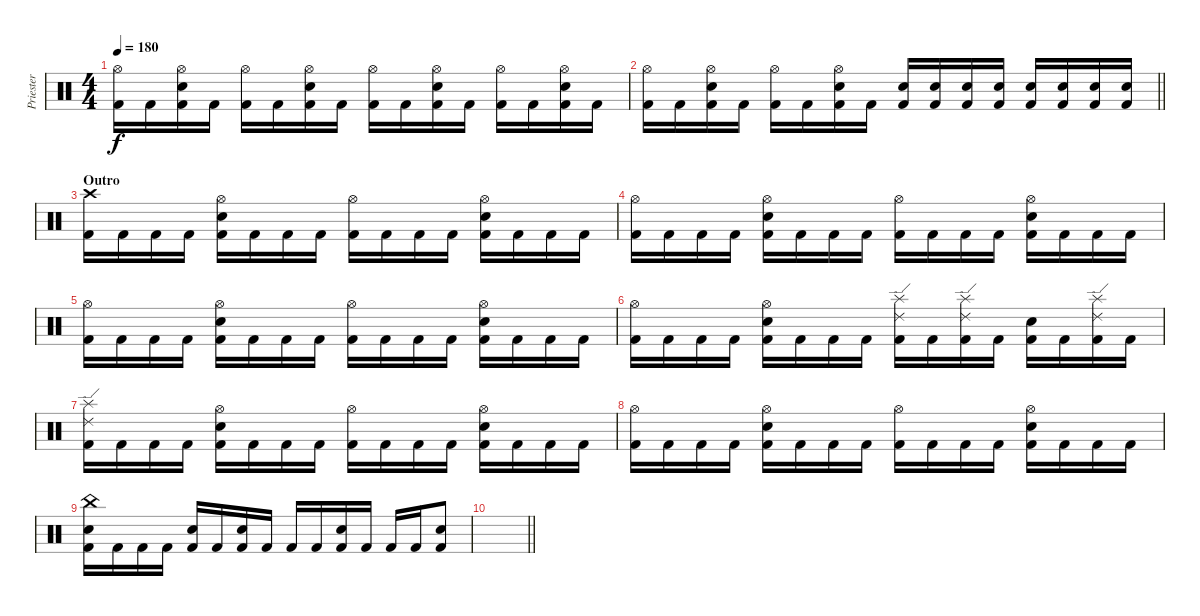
\track ("Priester" "Priester") {instrument percussion}
\staff {score}
\articulation defaults
\ts (4 4)
\tempo 180
\clef neutral
\ks c
("Hi-Hat (open)" "Kick (hit) 2").16{dy f} "Kick (hit) 2".16 ("Hi-Hat (open)" "Electric Snare (hit)" "Kick (hit) 2").16 "Kick (hit) 2".16 ("Hi-Hat (open)" "Kick (hit) 2").16 "Kick (hit) 2".16 ("Hi-Hat (open)" "Electric Snare (hit)" "Kick (hit) 2").16 "Kick (hit) 2".16 ("Hi-Hat (open)" "Kick (hit) 2").16 "Kick (hit) 2".16 ("Hi-Hat (open)" "Electric Snare (hit)" "Kick (hit) 2").16 "Kick (hit) 2".16 ("Hi-Hat (open)" "Kick (hit) 2").16 "Kick (hit) 2".16 ("Hi-Hat (open)" "Electric Snare (hit)" "Kick (hit) 2").16 "Kick (hit) 2".16 |
\barLineRight lightlight
("Hi-Hat (open)" "Kick (hit) 2").16 "Kick (hit) 2".16 ("Hi-Hat (open)" "Electric Snare (hit)" "Kick (hit) 2").16 "Kick (hit) 2".16 ("Hi-Hat (open)" "Kick (hit) 2").16 "Kick (hit) 2".16 ("Hi-Hat (open)" "Electric Snare (hit)" "Kick (hit) 2").16 "Kick (hit) 2".16 ("Electric Snare (hit)" "Kick (hit) 2").16 ("Electric Snare (hit)" "Kick (hit) 2").16 ("Electric Snare (hit)" "Kick (hit) 2").16 ("Electric Snare (hit)" "Kick (hit) 2").16 ("Electric Snare (hit)" "Kick (hit) 2").16 ("Electric Snare (hit)" "Kick (hit) 2").16 ("Electric Snare (hit)" "Kick (hit) 2").16 ("Electric Snare (hit)" "Kick (hit) 2").16 |
\section ("" "Outro")
("Crash high (hit)" "Kick (hit) 2").16 "Kick (hit) 2".16 "Kick (hit) 2".16 "Kick (hit) 2".16 ("Hi-Hat (open)" "Electric Snare (hit)" "Kick (hit) 2").16 "Kick (hit) 2".16 "Kick (hit) 2".16 "Kick (hit) 2".16 ("Hi-Hat (open)" "Kick (hit) 2").16 "Kick (hit) 2".16 "Kick (hit) 2".16 "Kick (hit) 2".16 ("Hi-Hat (open)" "Electric Snare (hit)" "Kick (hit) 2").16 "Kick (hit) 2".16 "Kick (hit) 2".16 "Kick (hit) 2".16 |
("Hi-Hat (open)" "Kick (hit) 2").16 "Kick (hit) 2".16 "Kick (hit) 2".16 "Kick (hit) 2".16 ("Hi-Hat (open)" "Electric Snare (hit)" "Kick (hit) 2").16 "Kick (hit) 2".16 "Kick (hit) 2".16 "Kick (hit) 2".16 ("Hi-Hat (open)" "Kick (hit) 2").16 "Kick (hit) 2".16 "Kick (hit) 2".16 "Kick (hit) 2".16 ("Hi-Hat (open)" "Electric Snare (hit)" "Kick (hit) 2").16 "Kick (hit) 2".16 "Kick (hit) 2".16 "Kick (hit) 2".16 |
("Hi-Hat (open)" "Kick (hit) 2").16 "Kick (hit) 2".16 "Kick (hit) 2".16 "Kick (hit) 2".16 ("Hi-Hat (open)" "Electric Snare (hit)" "Kick (hit) 2").16 "Kick (hit) 2".16 "Kick (hit) 2".16 "Kick (hit) 2".16 ("Hi-Hat (open)" "Kick (hit) 2").16 "Kick (hit) 2".16 "Kick (hit) 2".16 "Kick (hit) 2".16 ("Hi-Hat (open)" "Electric Snare (hit)" "Kick (hit) 2").16 "Kick (hit) 2".16 "Kick (hit) 2".16 "Kick (hit) 2".16 |
("Hi-Hat (open)" "Kick (hit) 2").16 "Kick (hit) 2".16 "Kick (hit) 2".16 "Kick (hit) 2".16 ("Hi-Hat (open)" "Electric Snare (hit)" "Kick (hit) 2").16 "Kick (hit) 2".16 "Kick (hit) 2".16 "Kick (hit) 2".16 ("Ride (edge) 2" "Splash (hit)" "Kick (hit) 2").16 "Kick (hit) 2".16 ("Ride (edge) 2" "Splash (hit)" "Kick (hit) 2").16 "Kick (hit) 2".16 ("Electric Snare (hit)" "Kick (hit) 2").16 "Kick (hit) 2".16 ("Ride (edge) 2" "Splash (hit)" "Kick (hit) 2").16 "Kick (hit) 2".16 |
("Ride (edge) 2" "Splash (hit)" "Kick (hit) 2").16 "Kick (hit) 2".16 "Kick (hit) 2".16 "Kick (hit) 2".16 ("Hi-Hat (open)" "Electric Snare (hit)" "Kick (hit) 2").16 "Kick (hit) 2".16 "Kick (hit) 2".16 "Kick (hit) 2".16 ("Hi-Hat (open)" "Kick (hit) 2").16 "Kick (hit) 2".16 "Kick (hit) 2".16 "Kick (hit) 2".16 ("Hi-Hat (open)" "Electric Snare (hit)" "Kick (hit) 2").16 "Kick (hit) 2".16 "Kick (hit) 2".16 "Kick (hit) 2".16 |
("Hi-Hat (open)" "Kick (hit) 2").16 "Kick (hit) 2".16 "Kick (hit) 2".16 "Kick (hit) 2".16 ("Hi-Hat (open)" "Electric Snare (hit)" "Kick (hit) 2").16 "Kick (hit) 2".16 "Kick (hit) 2".16 "Kick (hit) 2".16 ("Hi-Hat (open)" "Kick (hit) 2").16 "Kick (hit) 2".16 "Kick (hit) 2".16 "Kick (hit) 2".16 ("Hi-Hat (open)" "Electric Snare (hit)" "Kick (hit) 2").16 "Kick (hit) 2".16 "Kick (hit) 2".16 "Kick (hit) 2".16 |
("China (hit)" "Electric Snare (hit)" "Kick (hit) 2").16 "Kick (hit) 2".16 "Kick (hit) 2".16 "Kick (hit) 2".16 ("Electric Snare (hit)" "Kick (hit) 2").16 "Kick (hit) 2".16 ("Electric Snare (hit)" "Kick (hit) 2").16 "Kick (hit) 2".16 "Kick (hit) 2".16 "Kick (hit) 2".16 ("Electric Snare (hit)" "Kick (hit) 2").16 "Kick (hit) 2".16 "Kick (hit) 2".16 "Kick (hit) 2".16 ("Electric Snare (hit)" "Kick (hit) 2").8 |
\barLineRight lightlight
